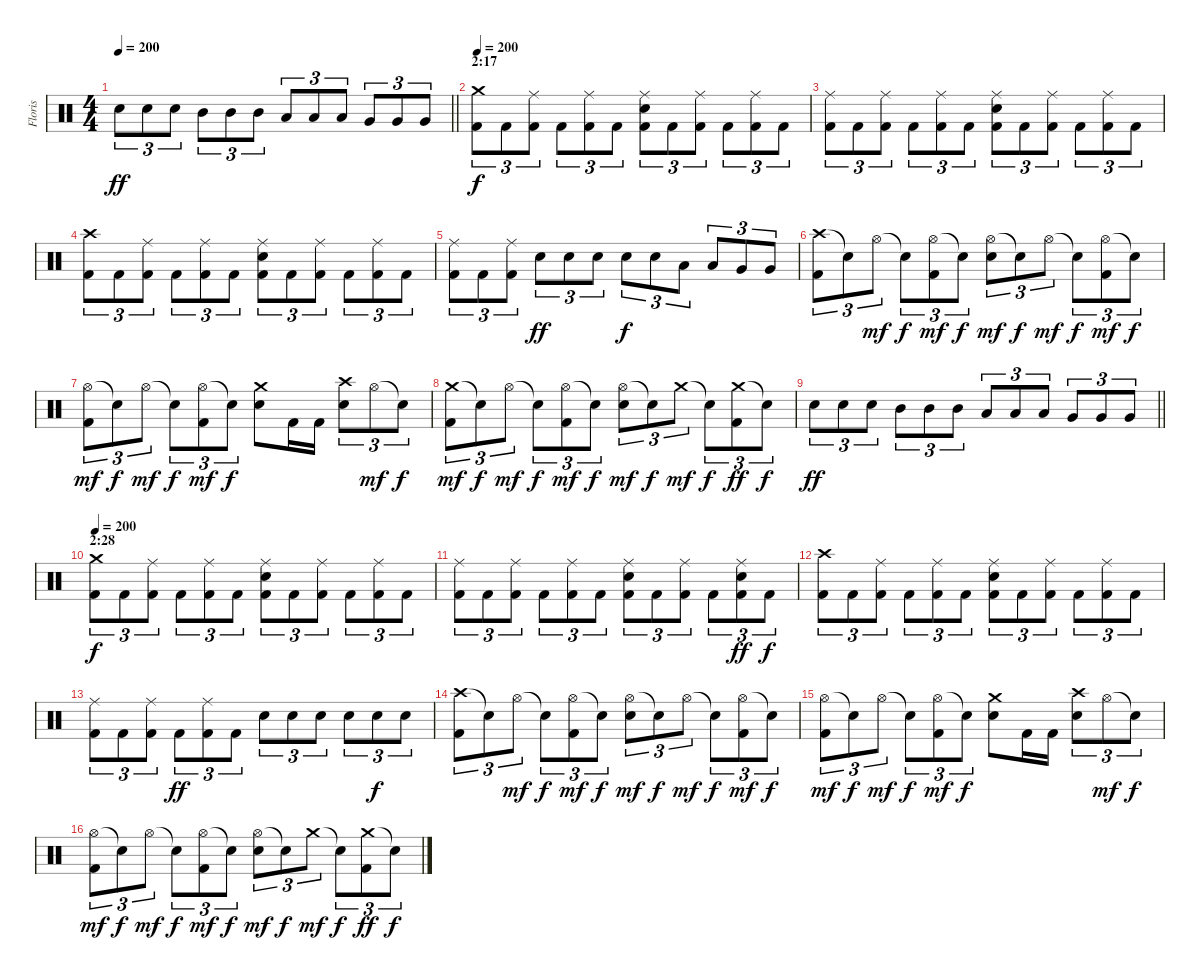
\track ("Floris" "Floris") {instrument percussion}
\staff {score}
\articulation defaults
\ts (4 4)
\tempo 200
\clef neutral
\barLineRight lightlight
\ks c "Electric Snare (hit)".8{tu (3 2) dy ff} "Electric Snare (hit)".8{tu (3 2)} "Electric Snare (hit)".8{tu (3 2)} "Mid Tom (hit)".8{tu (3 2)} "Mid Tom (hit)".8{tu (3 2)} "Mid Tom (hit)".8{tu (3 2)} "Low Tom (hit)".8{tu (3 2)} "Low Tom (hit)".8{tu (3 2)} "Low Tom (hit)".8{tu (3 2)} "Very Low Tom (hit)".8{tu (3 2)} "Very Low Tom (hit)".8{tu (3 2)} "Very Low Tom (hit)".8{tu (3 2)}
|
\section ("" "2:17")
\tempo 200
("Crash medium (hit)" "Kick (hit) 2").8{tu (3 2) dy f} "Kick (hit) 2".8{tu (3 2)} ("Ride (middle)" "Kick (hit) 2").8{tu (3 2)} "Kick (hit) 2".8{tu (3 2)} ("Ride (middle)" "Kick (hit) 2").8{tu (3 2)} "Kick (hit) 2".8{tu (3 2)} ("Ride (middle)" "Electric Snare (hit)" "Kick (hit) 2").8{tu (3 2)} "Kick (hit) 2".8{tu (3 2)} ("Ride (middle)" "Kick (hit) 2").8{tu (3 2)} "Kick (hit) 2".8{tu (3 2)} ("Ride (middle)" "Kick (hit) 2").8{tu (3 2)} "Kick (hit) 2".8{tu (3 2)} |
("Ride (middle)" "Kick (hit) 2").8{tu (3 2)} "Kick (hit) 2".8{tu (3 2)} ("Ride (middle)" "Kick (hit) 2").8{tu (3 2)} "Kick (hit) 2".8{tu (3 2)} ("Ride (middle)" "Kick (hit) 2").8{tu (3 2)} "Kick (hit) 2".8{tu (3 2)} ("Ride (middle)" "Electric Snare (hit)" "Kick (hit) 2").8{tu (3 2)} "Kick (hit) 2".8{tu (3 2)} ("Ride (middle)" "Kick (hit) 2").8{tu (3 2)} "Kick (hit) 2".8{tu (3 2)} ("Ride (middle)" "Kick (hit) 2").8{tu (3 2)} "Kick (hit) 2".8{tu (3 2)} |
("Crash high (hit)" "Kick (hit) 2").8{tu (3 2)} "Kick (hit) 2".8{tu (3 2)} ("Ride (middle)" "Kick (hit) 2").8{tu (3 2)} "Kick (hit) 2".8{tu (3 2)} ("Ride (middle)" "Kick (hit) 2").8{tu (3 2)} "Kick (hit) 2".8{tu (3 2)} ("Ride (middle)" "Electric Snare (hit)" "Kick (hit) 2").8{tu (3 2)} "Kick (hit) 2".8{tu (3 2)} ("Ride (middle)" "Kick (hit) 2").8{tu (3 2)} "Kick (hit) 2".8{tu (3 2)} ("Ride (middle)" "Kick (hit) 2").8{tu (3 2)} "Kick (hit) 2".8{tu (3 2)} |
("Ride (middle)" "Kick (hit) 2").8{tu (3 2)} "Kick (hit) 2".8{tu (3 2)} ("Ride (middle)" "Kick (hit) 2").8{tu (3 2)} "Electric Snare (hit)".8{tu (3 2) dy ff} "Electric Snare (hit)".8{tu (3 2)} "Electric Snare (hit)".8{tu (3 2)} "Electric Snare (hit)".8{tu (3 2) dy f} "Electric Snare (hit)".8{tu (3 2)} "Low Tom (hit)".8{tu (3 2)} "Low Tom (hit)".8{tu (3 2)} "Very Low Tom (hit)".8{tu (3 2)} "Very Low Tom (hit)".8{tu (3 2)} |
("Crash high (hit)" "Kick (hit) 2").8{tu (3 2)} "Snare (hit)"{t}.8{tu (3 2)} "Hi-Hat (open)".8{tu (3 2) dy mf} "Snare (hit)"{t}.8{tu (3 2) dy f} ("Hi-Hat (open)" "Kick (hit) 2").8{tu (3 2) dy mf} "Snare (hit)"{t}.8{tu (3 2) dy f} ("Hi-Hat (open)" "Electric Snare (hit)").8{tu (3 2) dy mf} "Snare (hit)"{t}.8{tu (3 2) dy f} "Hi-Hat (open)".8{tu (3 2) dy mf} "Snare (hit)"{t}.8{tu (3 2) dy f} ("Hi-Hat (open)" "Kick (hit) 2").8{tu (3 2) dy mf} "Snare (hit)"{t}.8{tu (3 2) dy f} |
("Hi-Hat (open)" "Kick (hit) 2").8{tu (3 2) dy mf} "Snare (hit)"{t}.8{tu (3 2) dy f} "Hi-Hat (open)".8{tu (3 2) dy mf} "Snare (hit)"{t}.8{tu (3 2) dy f} ("Hi-Hat (open)" "Kick (hit) 2").8{tu (3 2) dy mf} "Snare (hit)"{t}.8{tu (3 2) dy f} ("Crash medium (hit)" "Electric Snare (hit)").8 "Kick (hit) 2".16 "Kick (hit) 2".16 ("Crash high (hit)" "Electric Snare (hit)").8{tu (3 2)} "Hi-Hat (open)".8{tu (3 2) dy mf} "Snare (hit)"{t}.8{tu (3 2) dy f} |
("Crash medium (hit)" "Kick (hit) 2").8{tu (3 2) dy mf} "Snare (hit)"{t}.8{tu (3 2) dy f} "Hi-Hat (open)".8{tu (3 2) dy mf} "Snare (hit)"{t}.8{tu (3 2) dy f} ("Hi-Hat (open)" "Kick (hit) 2").8{tu (3 2) dy mf} "Snare (hit)"{t}.8{tu (3 2) dy f} ("Hi-Hat (open)" "Electric Snare (hit)").8{tu (3 2) dy mf} "Snare (hit)"{t}.8{tu (3 2) dy f} "Crash medium (hit)".8{tu (3 2) dy mf} "Snare (hit)"{t}.8{tu (3 2) dy f} ("Crash medium (hit)" "Kick (hit) 2").8{tu (3 2) dy ff} "Snare (hit)"{t}.8{tu (3 2) dy f} |
\barLineRight lightlight "Electric Snare (hit)".8{tu (3 2) dy ff} "Electric Snare (hit)".8{tu (3 2)} "Electric Snare (hit)".8{tu (3 2)} "Mid Tom (hit)".8{tu (3 2)} "Mid Tom (hit)".8{tu (3 2)} "Mid Tom (hit)".8{tu (3 2)} "Low Tom (hit)".8{tu (3 2)} "Low Tom (hit)".8{tu (3 2)} "Low Tom (hit)".8{tu (3 2)} "Very Low Tom (hit)".8{tu (3 2)} "Very Low Tom (hit)".8{tu (3 2)} "Very Low Tom (hit)".8{tu (3 2)}
|
\section ("" "2:28")
\tempo 200
("Crash medium (hit)" "Kick (hit) 2").8{tu (3 2) dy f} "Kick (hit) 2".8{tu (3 2)} ("Ride (middle)" "Kick (hit) 2").8{tu (3 2)} "Kick (hit) 2".8{tu (3 2)} ("Ride (middle)" "Kick (hit) 2").8{tu (3 2)} "Kick (hit) 2".8{tu (3 2)} ("Ride (middle)" "Electric Snare (hit)" "Kick (hit) 2").8{tu (3 2)} "Kick (hit) 2".8{tu (3 2)} ("Ride (middle)" "Kick (hit) 2").8{tu (3 2)} "Kick (hit) 2".8{tu (3 2)} ("Ride (middle)" "Kick (hit) 2").8{tu (3 2)} "Kick (hit) 2".8{tu (3 2)} |
("Ride (middle)" "Kick (hit) 2").8{tu (3 2)} "Kick (hit) 2".8{tu (3 2)} ("Ride (middle)" "Kick (hit) 2").8{tu (3 2)} "Kick (hit) 2".8{tu (3 2)} ("Ride (middle)" "Kick (hit) 2").8{tu (3 2)} "Kick (hit) 2".8{tu (3 2)} ("Ride (middle)" "Electric Snare (hit)" "Kick (hit) 2").8{tu (3 2)} "Kick (hit) 2".8{tu (3 2)} ("Ride (middle)" "Kick (hit) 2").8{tu (3 2)} "Kick (hit) 2".8{tu (3 2)} ("Ride (middle)" "Electric Snare (hit)" "Kick (hit) 2").8{tu (3 2) dy ff} "Kick (hit) 2".8{tu (3 2) dy f} |
("Crash high (hit)" "Kick (hit) 2").8{tu (3 2)} "Kick (hit) 2".8{tu (3 2)} ("Ride (middle)" "Kick (hit) 2").8{tu (3 2)} "Kick (hit) 2".8{tu (3 2)} ("Ride (middle)" "Kick (hit) 2").8{tu (3 2)} "Kick (hit) 2".8{tu (3 2)} ("Ride (middle)" "Electric Snare (hit)" "Kick (hit) 2").8{tu (3 2)} "Kick (hit) 2".8{tu (3 2)} ("Ride (middle)" "Kick (hit) 2").8{tu (3 2)} "Kick (hit) 2".8{tu (3 2)} ("Ride (middle)" "Kick (hit) 2").8{tu (3 2)} "Kick (hit) 2".8{tu (3 2)} |
("Ride (middle)" "Kick (hit) 2").8{tu (3 2)} "Kick (hit) 2".8{tu (3 2)} ("Ride (middle)" "Kick (hit) 2").8{tu (3 2)} "Kick (hit) 2".8{tu (3 2) dy ff} ("Ride (middle)" "Kick (hit) 2").8{tu (3 2)} "Kick (hit) 2".8{tu (3 2)} "Electric Snare (hit)".8{tu (3 2)} "Electric Snare (hit)".8{tu (3 2)} "Electric Snare (hit)".8{tu (3 2)} "Electric Snare (hit)".8{tu (3 2)} "Electric Snare (hit)".8{tu (3 2) dy f} "Electric Snare (hit)".8{tu (3 2)} |
("Crash high (hit)" "Kick (hit) 2").8{tu (3 2)} "Snare (hit)"{t}.8{tu (3 2)} "Hi-Hat (open)".8{tu (3 2) dy mf} "Snare (hit)"{t}.8{tu (3 2) dy f} ("Hi-Hat (open)" "Kick (hit) 2").8{tu (3 2) dy mf} "Snare (hit)"{t}.8{tu (3 2) dy f} ("Hi-Hat (open)" "Electric Snare (hit)").8{tu (3 2) dy mf} "Snare (hit)"{t}.8{tu (3 2) dy f} "Hi-Hat (open)".8{tu (3 2) dy mf} "Snare (hit)"{t}.8{tu (3 2) dy f} ("Hi-Hat (open)" "Kick (hit) 2").8{tu (3 2) dy mf} "Snare (hit)"{t}.8{tu (3 2) dy f} |
("Hi-Hat (open)" "Kick (hit) 2").8{tu (3 2) dy mf} "Snare (hit)"{t}.8{tu (3 2) dy f} "Hi-Hat (open)".8{tu (3 2) dy mf} "Snare (hit)"{t}.8{tu (3 2) dy f} ("Hi-Hat (open)" "Kick (hit) 2").8{tu (3 2) dy mf} "Snare (hit)"{t}.8{tu (3 2) dy f} ("Crash medium (hit)" "Electric Snare (hit)").8 "Kick (hit) 2".16 "Kick (hit) 2".16 ("Crash high (hit)" "Electric Snare (hit)").8{tu (3 2)} "Hi-Hat (open)".8{tu (3 2) dy mf} "Snare (hit)"{t}.8{tu (3 2) dy f} |
("Hi-Hat (open)" "Kick (hit) 2").8{tu (3 2) dy mf} "Snare (hit)"{t}.8{tu (3 2) dy f} "Hi-Hat (open)".8{tu (3 2) dy mf} "Snare (hit)"{t}.8{tu (3 2) dy f} ("Hi-Hat (open)" "Kick (hit) 2").8{tu (3 2) dy mf} "Snare (hit)"{t}.8{tu (3 2) dy f} ("Hi-Hat (open)" "Electric Snare (hit)").8{tu (3 2) dy mf} "Snare (hit)"{t}.8{tu (3 2) dy f} "Crash medium (hit)".8{tu (3 2) dy mf} "Snare (hit)"{t}.8{tu (3 2) dy f} ("Crash medium (hit)" "Kick (hit) 2").8{tu (3 2) dy ff} "Snare (hit)"{t}.8{tu (3 2) dy f}
